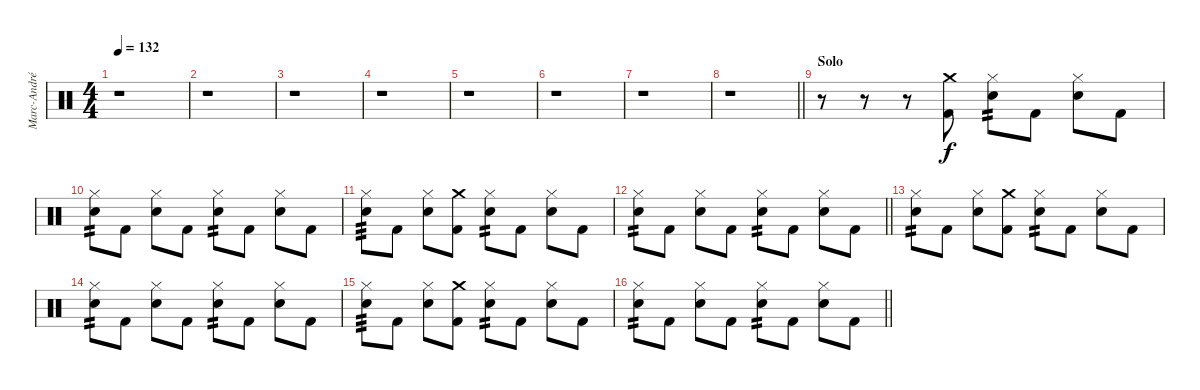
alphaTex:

\track ("Marc-André Barabé" "Marc-André") {instrument percussion}
\staff {score}
\articulation defaults
\ts (4 4)
\tempo 132
\clef neutral
\ks c
r.1{dy f} |
r.1 |
r.1 |
r.1 |
r.1 |
r.1 |
r.1 |
\barLineRight lightlight
r.1 |
\section ("" "Solo")
r.8 r.8 r.8 ("Crash medium (hit)" "Kick (hit) 2").8 ("Hi-Hat (closed)" "Electric Snare (hit)").8{tp 2} "Kick (hit) 2".8 ("Hi-Hat (closed)" "Electric Snare (hit)").8 "Kick (hit) 2".8 |
("Hi-Hat (closed)" "Electric Snare (hit)").8{tp 2} "Kick (hit) 2".8 ("Hi-Hat (closed)" "Electric Snare (hit)").8 "Kick (hit) 2".8 ("Hi-Hat (closed)" "Electric Snare (hit)").8{tp 2} "Kick (hit) 2".8 ("Hi-Hat (closed)" "Electric Snare (hit)").8 "Kick (hit) 2".8 |
("Hi-Hat (closed)" "Electric Snare (hit)").8{tp 3} "Kick (hit) 2".8 ("Hi-Hat (closed)" "Electric Snare (hit)").8 ("Crash medium (hit)" "Kick (hit) 2").8 ("Hi-Hat (closed)" "Electric Snare (hit)").8{tp 2} "Kick (hit) 2".8 ("Hi-Hat (closed)" "Electric Snare (hit)").8 "Kick (hit) 2".8 |
\barLineRight lightlight
("Hi-Hat (closed)" "Electric Snare (hit)").8{tp 2} "Kick (hit) 2".8 ("Hi-Hat (closed)" "Electric Snare (hit)").8 "Kick (hit) 2".8 ("Hi-Hat (closed)" "Electric Snare (hit)").8{tp 2} "Kick (hit) 2".8 ("Hi-Hat (closed)" "Electric Snare (hit)").8 "Kick (hit) 2".8 |
("Hi-Hat (closed)" "Electric Snare (hit)").8{tp 2} "Kick (hit) 2".8 ("Hi-Hat (closed)" "Electric Snare (hit)").8 ("Crash medium (hit)" "Kick (hit) 2").8 ("Hi-Hat (closed)" "Electric Snare (hit)").8{tp 2} "Kick (hit) 2".8 ("Hi-Hat (closed)" "Electric Snare (hit)").8 "Kick (hit) 2".8 |
("Hi-Hat (closed)" "Electric Snare (hit)").8{tp 2} "Kick (hit) 2".8 ("Hi-Hat (closed)" "Electric Snare (hit)").8 "Kick (hit) 2".8 ("Hi-Hat (closed)" "Electric Snare (hit)").8{tp 2} "Kick (hit) 2".8 ("Hi-Hat (closed)" "Electric Snare (hit)").8 "Kick (hit) 2".8 |
("Hi-Hat (closed)" "Electric Snare (hit)").8{tp 3} "Kick (hit) 2".8 ("Hi-Hat (closed)" "Electric Snare (hit)").8 ("Crash medium (hit)" "Kick (hit) 2").8 ("Hi-Hat (closed)" "Electric Snare (hit)").8{tp 2} "Kick (hit) 2".8 ("Hi-Hat (closed)" "Electric Snare (hit)").8 "Kick (hit) 2".8 |
\barLineRight lightlight
("Hi-Hat (closed)" "Electric Snare (hit)").8{tp 2} "Kick (hit) 2".8 ("Hi-Hat (closed)" "Electric Snare (hit)").8 "Kick (hit) 2".8 ("Hi-Hat (closed)" "Electric Snare (hit)").8{tp 2} "Kick (hit) 2".8 ("Hi-Hat (closed)" "Electric Snare (hit)").8 "Kick (hit) 2".8
